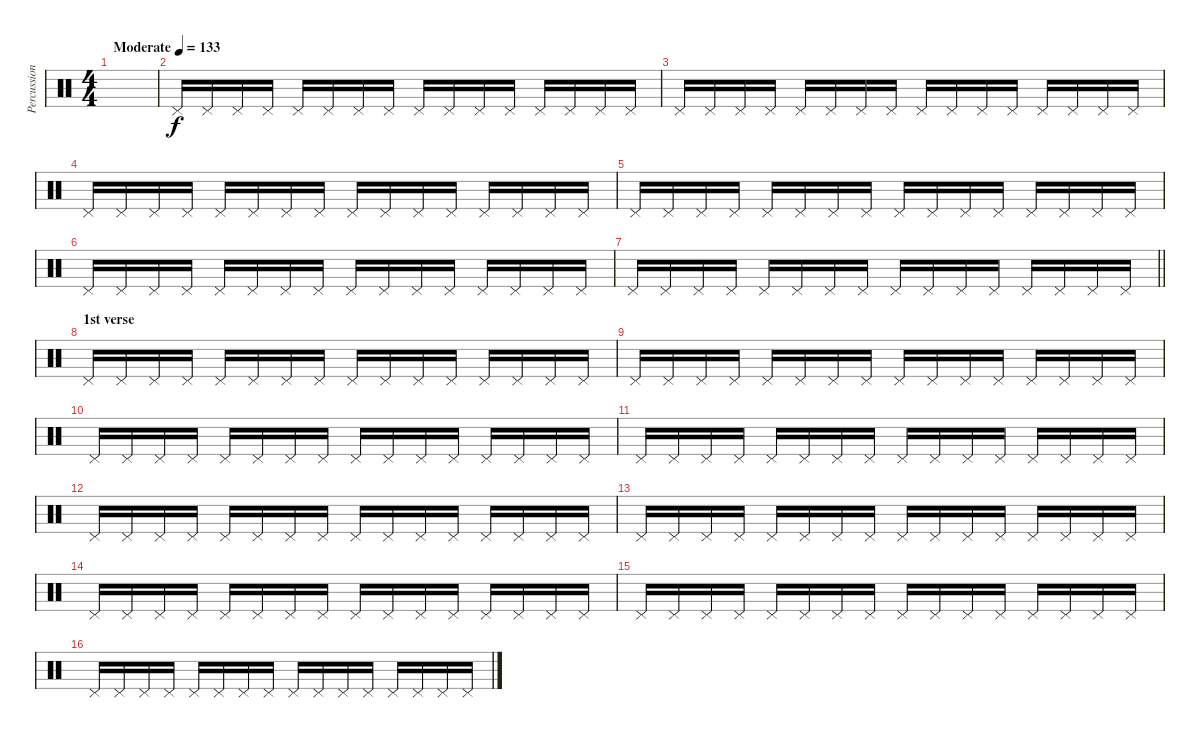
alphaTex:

\track ("Percussions" "Percussion") {instrument percussion}
\staff {score}
\articulation defaults
\ts (4 4)
\tempo (133 "Moderate")
\clef neutral
\ks c
|
"Pedal Hi-Hat (hit)".16 "Pedal Hi-Hat (hit)".16 "Pedal Hi-Hat (hit)".16 "Pedal Hi-Hat (hit)".16 "Pedal Hi-Hat (hit)".16 "Pedal Hi-Hat (hit)".16 "Pedal Hi-Hat (hit)".16 "Pedal Hi-Hat (hit)".16 "Pedal Hi-Hat (hit)".16 "Pedal Hi-Hat (hit)".16 "Pedal Hi-Hat (hit)".16 "Pedal Hi-Hat (hit)".16 "Pedal Hi-Hat (hit)".16 "Pedal Hi-Hat (hit)".16 "Pedal Hi-Hat (hit)".16 "Pedal Hi-Hat (hit)".16 |
"Pedal Hi-Hat (hit)".16 "Pedal Hi-Hat (hit)".16 "Pedal Hi-Hat (hit)".16 "Pedal Hi-Hat (hit)".16 "Pedal Hi-Hat (hit)".16 "Pedal Hi-Hat (hit)".16 "Pedal Hi-Hat (hit)".16 "Pedal Hi-Hat (hit)".16 "Pedal Hi-Hat (hit)".16 "Pedal Hi-Hat (hit)".16 "Pedal Hi-Hat (hit)".16 "Pedal Hi-Hat (hit)".16 "Pedal Hi-Hat (hit)".16 "Pedal Hi-Hat (hit)".16 "Pedal Hi-Hat (hit)".16 "Pedal Hi-Hat (hit)".16 |
"Pedal Hi-Hat (hit)".16 "Pedal Hi-Hat (hit)".16 "Pedal Hi-Hat (hit)".16 "Pedal Hi-Hat (hit)".16 "Pedal Hi-Hat (hit)".16 "Pedal Hi-Hat (hit)".16 "Pedal Hi-Hat (hit)".16 "Pedal Hi-Hat (hit)".16 "Pedal Hi-Hat (hit)".16 "Pedal Hi-Hat (hit)".16 "Pedal Hi-Hat (hit)".16 "Pedal Hi-Hat (hit)".16 "Pedal Hi-Hat (hit)".16 "Pedal Hi-Hat (hit)".16 "Pedal Hi-Hat (hit)".16 "Pedal Hi-Hat (hit)".16 |
"Pedal Hi-Hat (hit)".16 "Pedal Hi-Hat (hit)".16 "Pedal Hi-Hat (hit)".16 "Pedal Hi-Hat (hit)".16 "Pedal Hi-Hat (hit)".16 "Pedal Hi-Hat (hit)".16 "Pedal Hi-Hat (hit)".16 "Pedal Hi-Hat (hit)".16 "Pedal Hi-Hat (hit)".16 "Pedal Hi-Hat (hit)".16 "Pedal Hi-Hat (hit)".16 "Pedal Hi-Hat (hit)".16 "Pedal Hi-Hat (hit)".16 "Pedal Hi-Hat (hit)".16 "Pedal Hi-Hat (hit)".16 "Pedal Hi-Hat (hit)".16 |
"Pedal Hi-Hat (hit)".16 "Pedal Hi-Hat (hit)".16 "Pedal Hi-Hat (hit)".16 "Pedal Hi-Hat (hit)".16 "Pedal Hi-Hat (hit)".16 "Pedal Hi-Hat (hit)".16 "Pedal Hi-Hat (hit)".16 "Pedal Hi-Hat (hit)".16 "Pedal Hi-Hat (hit)".16 "Pedal Hi-Hat (hit)".16 "Pedal Hi-Hat (hit)".16 "Pedal Hi-Hat (hit)".16 "Pedal Hi-Hat (hit)".16 "Pedal Hi-Hat (hit)".16 "Pedal Hi-Hat (hit)".16 "Pedal Hi-Hat (hit)".16 |
\barLineRight lightlight "Pedal Hi-Hat (hit)".16 "Pedal Hi-Hat (hit)".16 "Pedal Hi-Hat (hit)".16 "Pedal Hi-Hat (hit)".16 "Pedal Hi-Hat (hit)".16 "Pedal Hi-Hat (hit)".16 "Pedal Hi-Hat (hit)".16 "Pedal Hi-Hat (hit)".16 "Pedal Hi-Hat (hit)".16 "Pedal Hi-Hat (hit)".16 "Pedal Hi-Hat (hit)".16 "Pedal Hi-Hat (hit)".16 "Pedal Hi-Hat (hit)".16 "Pedal Hi-Hat (hit)".16 "Pedal Hi-Hat (hit)".16 "Pedal Hi-Hat (hit)".16
|
\section ("" "1st verse")
"Pedal Hi-Hat (hit)".16 "Pedal Hi-Hat (hit)".16 "Pedal Hi-Hat (hit)".16 "Pedal Hi-Hat (hit)".16 "Pedal Hi-Hat (hit)".16 "Pedal Hi-Hat (hit)".16 "Pedal Hi-Hat (hit)".16 "Pedal Hi-Hat (hit)".16 "Pedal Hi-Hat (hit)".16 "Pedal Hi-Hat (hit)".16 "Pedal Hi-Hat (hit)".16 "Pedal Hi-Hat (hit)".16 "Pedal Hi-Hat (hit)".16 "Pedal Hi-Hat (hit)".16 "Pedal Hi-Hat (hit)".16 "Pedal Hi-Hat (hit)".16 |
"Pedal Hi-Hat (hit)".16 "Pedal Hi-Hat (hit)".16 "Pedal Hi-Hat (hit)".16 "Pedal Hi-Hat (hit)".16 "Pedal Hi-Hat (hit)".16 "Pedal Hi-Hat (hit)".16 "Pedal Hi-Hat (hit)".16 "Pedal Hi-Hat (hit)".16 "Pedal Hi-Hat (hit)".16 "Pedal Hi-Hat (hit)".16 "Pedal Hi-Hat (hit)".16 "Pedal Hi-Hat (hit)".16 "Pedal Hi-Hat (hit)".16 "Pedal Hi-Hat (hit)".16 "Pedal Hi-Hat (hit)".16 "Pedal Hi-Hat (hit)".16 |
"Pedal Hi-Hat (hit)".16 "Pedal Hi-Hat (hit)".16 "Pedal Hi-Hat (hit)".16 "Pedal Hi-Hat (hit)".16 "Pedal Hi-Hat (hit)".16 "Pedal Hi-Hat (hit)".16 "Pedal Hi-Hat (hit)".16 "Pedal Hi-Hat (hit)".16 "Pedal Hi-Hat (hit)".16 "Pedal Hi-Hat (hit)".16 "Pedal Hi-Hat (hit)".16 "Pedal Hi-Hat (hit)".16 "Pedal Hi-Hat (hit)".16 "Pedal Hi-Hat (hit)".16 "Pedal Hi-Hat (hit)".16 "Pedal Hi-Hat (hit)".16 |
"Pedal Hi-Hat (hit)".16 "Pedal Hi-Hat (hit)".16 "Pedal Hi-Hat (hit)".16 "Pedal Hi-Hat (hit)".16 "Pedal Hi-Hat (hit)".16 "Pedal Hi-Hat (hit)".16 "Pedal Hi-Hat (hit)".16 "Pedal Hi-Hat (hit)".16 "Pedal Hi-Hat (hit)".16 "Pedal Hi-Hat (hit)".16 "Pedal Hi-Hat (hit)".16 "Pedal Hi-Hat (hit)".16 "Pedal Hi-Hat (hit)".16 "Pedal Hi-Hat (hit)".16 "Pedal Hi-Hat (hit)".16 "Pedal Hi-Hat (hit)".16 |
"Pedal Hi-Hat (hit)".16 "Pedal Hi-Hat (hit)".16 "Pedal Hi-Hat (hit)".16 "Pedal Hi-Hat (hit)".16 "Pedal Hi-Hat (hit)".16 "Pedal Hi-Hat (hit)".16 "Pedal Hi-Hat (hit)".16 "Pedal Hi-Hat (hit)".16 "Pedal Hi-Hat (hit)".16 "Pedal Hi-Hat (hit)".16 "Pedal Hi-Hat (hit)".16 "Pedal Hi-Hat (hit)".16 "Pedal Hi-Hat (hit)".16 "Pedal Hi-Hat (hit)".16 "Pedal Hi-Hat (hit)".16 "Pedal Hi-Hat (hit)".16 |
"Pedal Hi-Hat (hit)".16 "Pedal Hi-Hat (hit)".16 "Pedal Hi-Hat (hit)".16 "Pedal Hi-Hat (hit)".16 "Pedal Hi-Hat (hit)".16 "Pedal Hi-Hat (hit)".16 "Pedal Hi-Hat (hit)".16 "Pedal Hi-Hat (hit)".16 "Pedal Hi-Hat (hit)".16 "Pedal Hi-Hat (hit)".16 "Pedal Hi-Hat (hit)".16 "Pedal Hi-Hat (hit)".16 "Pedal Hi-Hat (hit)".16 "Pedal Hi-Hat (hit)".16 "Pedal Hi-Hat (hit)".16 "Pedal Hi-Hat (hit)".16 |
"Pedal Hi-Hat (hit)".16 "Pedal Hi-Hat (hit)".16 "Pedal Hi-Hat (hit)".16 "Pedal Hi-Hat (hit)".16 "Pedal Hi-Hat (hit)".16 "Pedal Hi-Hat (hit)".16 "Pedal Hi-Hat (hit)".16 "Pedal Hi-Hat (hit)".16 "Pedal Hi-Hat (hit)".16 "Pedal Hi-Hat (hit)".16 "Pedal Hi-Hat (hit)".16 "Pedal Hi-Hat (hit)".16 "Pedal Hi-Hat (hit)".16 "Pedal Hi-Hat (hit)".16 "Pedal Hi-Hat (hit)".16 "Pedal Hi-Hat (hit)".16 |
"Pedal Hi-Hat (hit)".16 "Pedal Hi-Hat (hit)".16 "Pedal Hi-Hat (hit)".16 "Pedal Hi-Hat (hit)".16 "Pedal Hi-Hat (hit)".16 "Pedal Hi-Hat (hit)".16 "Pedal Hi-Hat (hit)".16 "Pedal Hi-Hat (hit)".16 "Pedal Hi-Hat (hit)".16 "Pedal Hi-Hat (hit)".16 "Pedal Hi-Hat (hit)".16 "Pedal Hi-Hat (hit)".16 "Pedal Hi-Hat (hit)".16 "Pedal Hi-Hat (hit)".16 "Pedal Hi-Hat (hit)".16 "Pedal Hi-Hat (hit)".16 |
"Pedal Hi-Hat (hit)".16 "Pedal Hi-Hat (hit)".16 "Pedal Hi-Hat (hit)".16 "Pedal Hi-Hat (hit)".16 "Pedal Hi-Hat (hit)".16 "Pedal Hi-Hat (hit)".16 "Pedal Hi-Hat (hit)".16 "Pedal Hi-Hat (hit)".16 "Pedal Hi-Hat (hit)".16 "Pedal Hi-Hat (hit)".16 "Pedal Hi-Hat (hit)".16 "Pedal Hi-Hat (hit)".16 "Pedal Hi-Hat (hit)".16 "Pedal Hi-Hat (hit)".16 "Pedal Hi-Hat (hit)".16 "Pedal Hi-Hat (hit)".16
